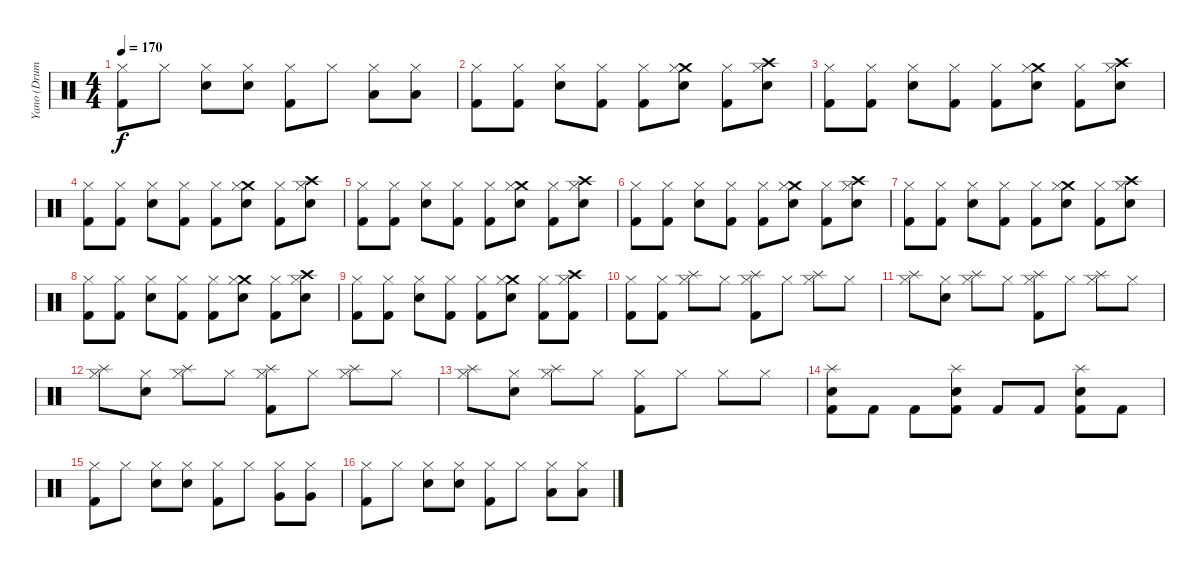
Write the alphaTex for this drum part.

\track ("Yano (Drums)" "Yano (Drum") {instrument percussion}
\staff {score}
\articulation defaults
\ts (4 4)
\tempo 170
\clef neutral
\ks c
("Hi-Hat (closed)" "Kick (hit) 2").8{dy f} "Hi-Hat (closed)".8 ("Hi-Hat (closed)" "Electric Snare (hit)").8 ("Hi-Hat (closed)" "Electric Snare (hit)").8 ("Hi-Hat (closed)" "Kick (hit) 2").8 "Hi-Hat (closed)".8 ("Hi-Hat (closed)" "Low Tom (hit)").8 ("Hi-Hat (closed)" "Low Tom (hit)").8 |
("Hi-Hat (closed)" "Kick (hit) 2").8 ("Hi-Hat (closed)" "Kick (hit) 2").8 ("Hi-Hat (closed)" "Electric Snare (hit)").8 ("Hi-Hat (closed)" "Kick (hit) 2").8 ("Hi-Hat (closed)" "Kick (hit) 2").8 ("Crash medium (hit)" "Hi-Hat (closed)" "Electric Snare (hit)").8 ("Hi-Hat (closed)" "Kick (hit) 2").8 ("Crash high (hit)" "Hi-Hat (closed)" "Electric Snare (hit)").8 |
("Hi-Hat (closed)" "Kick (hit) 2").8 ("Hi-Hat (closed)" "Kick (hit) 2").8 ("Hi-Hat (closed)" "Electric Snare (hit)").8 ("Hi-Hat (closed)" "Kick (hit) 2").8 ("Hi-Hat (closed)" "Kick (hit) 2").8 ("Crash medium (hit)" "Hi-Hat (closed)" "Electric Snare (hit)").8 ("Hi-Hat (closed)" "Kick (hit) 2").8 ("Crash high (hit)" "Hi-Hat (closed)" "Electric Snare (hit)").8 |
("Hi-Hat (closed)" "Kick (hit) 2").8 ("Hi-Hat (closed)" "Kick (hit) 2").8 ("Hi-Hat (closed)" "Electric Snare (hit)").8 ("Hi-Hat (closed)" "Kick (hit) 2").8 ("Hi-Hat (closed)" "Kick (hit) 2").8 ("Crash medium (hit)" "Hi-Hat (closed)" "Electric Snare (hit)").8 ("Hi-Hat (closed)" "Kick (hit) 2").8 ("Crash high (hit)" "Hi-Hat (closed)" "Electric Snare (hit)").8 |
("Hi-Hat (closed)" "Kick (hit) 2").8 ("Hi-Hat (closed)" "Kick (hit) 2").8 ("Hi-Hat (closed)" "Electric Snare (hit)").8 ("Hi-Hat (closed)" "Kick (hit) 2").8 ("Hi-Hat (closed)" "Kick (hit) 2").8 ("Crash medium (hit)" "Hi-Hat (closed)" "Electric Snare (hit)").8 ("Hi-Hat (closed)" "Kick (hit) 2").8 ("Crash high (hit)" "Hi-Hat (closed)" "Electric Snare (hit)").8 |
("Hi-Hat (closed)" "Kick (hit) 2").8 ("Hi-Hat (closed)" "Kick (hit) 2").8 ("Hi-Hat (closed)" "Electric Snare (hit)").8 ("Hi-Hat (closed)" "Kick (hit) 2").8 ("Hi-Hat (closed)" "Kick (hit) 2").8 ("Crash medium (hit)" "Hi-Hat (closed)" "Electric Snare (hit)").8 ("Hi-Hat (closed)" "Kick (hit) 2").8 ("Crash high (hit)" "Hi-Hat (closed)" "Electric Snare (hit)").8 |
("Hi-Hat (closed)" "Kick (hit) 2").8 ("Hi-Hat (closed)" "Kick (hit) 2").8 ("Hi-Hat (closed)" "Electric Snare (hit)").8 ("Hi-Hat (closed)" "Kick (hit) 2").8 ("Hi-Hat (closed)" "Kick (hit) 2").8 ("Crash medium (hit)" "Hi-Hat (closed)" "Electric Snare (hit)").8 ("Hi-Hat (closed)" "Kick (hit) 2").8 ("Crash high (hit)" "Hi-Hat (closed)" "Electric Snare (hit)").8 |
("Hi-Hat (closed)" "Kick (hit) 2").8 ("Hi-Hat (closed)" "Kick (hit) 2").8 ("Hi-Hat (closed)" "Electric Snare (hit)").8 ("Hi-Hat (closed)" "Kick (hit) 2").8 ("Hi-Hat (closed)" "Kick (hit) 2").8 ("Crash medium (hit)" "Hi-Hat (closed)" "Electric Snare (hit)").8 ("Hi-Hat (closed)" "Kick (hit) 2").8 ("Crash high (hit)" "Hi-Hat (closed)" "Electric Snare (hit)").8 |
("Hi-Hat (closed)" "Kick (hit) 2").8 ("Hi-Hat (closed)" "Kick (hit) 2").8 ("Hi-Hat (closed)" "Electric Snare (hit)").8 ("Hi-Hat (closed)" "Kick (hit) 2").8 ("Hi-Hat (closed)" "Kick (hit) 2").8 ("Crash medium (hit)" "Hi-Hat (closed)" "Electric Snare (hit)").8 ("Hi-Hat (closed)" "Kick (hit) 2").8 ("Crash high (hit)" "Hi-Hat (closed)" "Kick (hit) 2").8 |
("Hi-Hat (closed)" "Kick (hit) 2").8 ("Hi-Hat (closed)" "Kick (hit) 2").8 ("Splash (hit)" "Hi-Hat (closed)").8 "Hi-Hat (closed)".8 ("Splash (hit)" "Hi-Hat (closed)" "Kick (hit) 2").8 "Hi-Hat (closed)".8 ("Splash (hit)" "Hi-Hat (closed)").8 "Hi-Hat (closed)".8 |
("Splash (hit)" "Hi-Hat (closed)").8 ("Hi-Hat (closed)" "Electric Snare (hit)").8 ("Splash (hit)" "Hi-Hat (closed)").8 "Hi-Hat (closed)".8 ("Splash (hit)" "Hi-Hat (closed)" "Kick (hit) 2").8 "Hi-Hat (closed)".8 ("Splash (hit)" "Hi-Hat (closed)").8 "Hi-Hat (closed)".8 |
("Splash (hit)" "Hi-Hat (closed)").8 ("Hi-Hat (closed)" "Electric Snare (hit)").8 ("Splash (hit)" "Hi-Hat (closed)").8 "Hi-Hat (closed)".8 ("Splash (hit)" "Hi-Hat (closed)" "Kick (hit) 2").8 "Hi-Hat (closed)".8 ("Splash (hit)" "Hi-Hat (closed)").8 "Hi-Hat (closed)".8 |
("Splash (hit)" "Hi-Hat (closed)").8 ("Hi-Hat (closed)" "Electric Snare (hit)").8 ("Splash (hit)" "Hi-Hat (closed)").8 "Hi-Hat (closed)".8 ("Hi-Hat (closed)" "Kick (hit) 2").8 "Hi-Hat (closed)".8 "Hi-Hat (closed)".8 "Hi-Hat (closed)".8 |
("Splash (hit)" "Electric Snare (hit)" "Kick (hit) 2").8 "Kick (hit) 2".8 "Kick (hit) 2".8 ("Splash (hit)" "Electric Snare (hit)" "Kick (hit) 2").8 "Kick (hit) 2".8 "Kick (hit) 2".8 ("Splash (hit)" "Electric Snare (hit)" "Kick (hit) 2").8 "Kick (hit) 2".8 |
("Hi-Hat (closed)" "Kick (hit) 2").8 "Hi-Hat (closed)".8 ("Hi-Hat (closed)" "Electric Snare (hit)").8 ("Hi-Hat (closed)" "Electric Snare (hit)").8 ("Hi-Hat (closed)" "Kick (hit) 2").8 "Hi-Hat (closed)".8 ("Hi-Hat (closed)" "Very Low Tom (hit)").8 ("Hi-Hat (closed)" "Very Low Tom (hit)").8 |
("Hi-Hat (closed)" "Kick (hit) 2").8 "Hi-Hat (closed)".8 ("Hi-Hat (closed)" "Electric Snare (hit)").8 ("Hi-Hat (closed)" "Electric Snare (hit)").8 ("Hi-Hat (closed)" "Kick (hit) 2").8 "Hi-Hat (closed)".8 ("Hi-Hat (closed)" "Low Tom (hit)").8 ("Hi-Hat (closed)" "Low Tom (hit)").8
